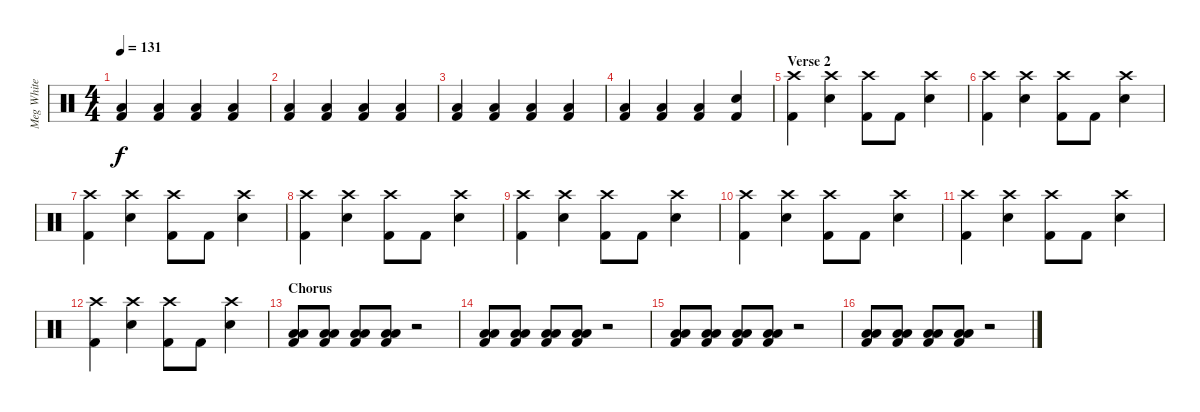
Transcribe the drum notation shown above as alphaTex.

\track ("Meg White - Drums" "Meg White ") {instrument percussion}
\staff {score}
\articulation defaults
\ts (4 4)
\tempo 131
\clef neutral
\ks c
("Low Floor Tom (hit)" "Kick (hit) 2").4{dy f} ("Low Floor Tom (hit)" "Kick (hit) 2").4 ("Low Floor Tom (hit)" "Kick (hit) 2").4 ("Low Floor Tom (hit)" "Kick (hit) 2").4 |
("Low Floor Tom (hit)" "Kick (hit) 2").4 ("Low Floor Tom (hit)" "Kick (hit) 2").4 ("Low Floor Tom (hit)" "Kick (hit) 2").4 ("Low Floor Tom (hit)" "Kick (hit) 2").4 |
("Low Floor Tom (hit)" "Kick (hit) 2").4 ("Low Floor Tom (hit)" "Kick (hit) 2").4 ("Low Floor Tom (hit)" "Kick (hit) 2").4 ("Low Floor Tom (hit)" "Kick (hit) 2").4 |
("Low Floor Tom (hit)" "Kick (hit) 2").4 ("Low Floor Tom (hit)" "Kick (hit) 2").4 ("Low Floor Tom (hit)" "Kick (hit) 2").4 ("Electric Snare (hit)" "Kick (hit) 2").4 |
\section ("" "Verse 2")
("Crash high (hit)" "Kick (hit) 2").4 ("Crash high (hit)" "Electric Snare (hit)").4 ("Crash high (hit)" "Kick (hit) 2").8 "Kick (hit) 2".8 ("Crash high (hit)" "Electric Snare (hit)").4 |
("Crash high (hit)" "Kick (hit) 2").4 ("Crash high (hit)" "Electric Snare (hit)").4 ("Crash high (hit)" "Kick (hit) 2").8 "Kick (hit) 2".8 ("Crash high (hit)" "Electric Snare (hit)").4 |
("Crash high (hit)" "Kick (hit) 2").4 ("Crash high (hit)" "Electric Snare (hit)").4 ("Crash high (hit)" "Kick (hit) 2").8 "Kick (hit) 2".8 ("Crash high (hit)" "Electric Snare (hit)").4 |
("Crash high (hit)" "Kick (hit) 2").4 ("Crash high (hit)" "Electric Snare (hit)").4 ("Crash high (hit)" "Kick (hit) 2").8 "Kick (hit) 2".8 ("Crash high (hit)" "Electric Snare (hit)").4 |
("Crash high (hit)" "Kick (hit) 2").4 ("Crash high (hit)" "Electric Snare (hit)").4 ("Crash high (hit)" "Kick (hit) 2").8 "Kick (hit) 2".8 ("Crash high (hit)" "Electric Snare (hit)").4 |
("Crash high (hit)" "Kick (hit) 2").4 ("Crash high (hit)" "Electric Snare (hit)").4 ("Crash high (hit)" "Kick (hit) 2").8 "Kick (hit) 2".8 ("Crash high (hit)" "Electric Snare (hit)").4 |
("Crash high (hit)" "Kick (hit) 2").4 ("Crash high (hit)" "Electric Snare (hit)").4 ("Crash high (hit)" "Kick (hit) 2").8 "Kick (hit) 2".8 ("Crash high (hit)" "Electric Snare (hit)").4 |
("Crash high (hit)" "Kick (hit) 2").4 ("Crash high (hit)" "Electric Snare (hit)").4 ("Crash high (hit)" "Kick (hit) 2").8 "Kick (hit) 2".8 ("Crash high (hit)" "Electric Snare (hit)").4 |
\section ("" "Chorus")
("Low Floor Tom (hit)" "Low Floor Tom (hit)" "Kick (hit) 2").8 ("Low Floor Tom (hit)" "Low Floor Tom (hit)" "Kick (hit) 2").8 ("Low Floor Tom (hit)" "Low Floor Tom (hit)" "Kick (hit) 2").8 ("Low Floor Tom (hit)" "Low Floor Tom (hit)" "Kick (hit) 2").8 r.2 |
("Low Floor Tom (hit)" "Low Floor Tom (hit)" "Kick (hit) 2").8 ("Low Floor Tom (hit)" "Low Floor Tom (hit)" "Kick (hit) 2").8 ("Low Floor Tom (hit)" "Low Floor Tom (hit)" "Kick (hit) 2").8 ("Low Floor Tom (hit)" "Low Floor Tom (hit)" "Kick (hit) 2").8 r.2 |
("Low Floor Tom (hit)" "Low Floor Tom (hit)" "Kick (hit) 2").8 ("Low Floor Tom (hit)" "Low Floor Tom (hit)" "Kick (hit) 2").8 ("Low Floor Tom (hit)" "Low Floor Tom (hit)" "Kick (hit) 2").8 ("Low Floor Tom (hit)" "Low Floor Tom (hit)" "Kick (hit) 2").8 r.2 |
("Low Floor Tom (hit)" "Low Floor Tom (hit)" "Kick (hit) 2").8 ("Low Floor Tom (hit)" "Low Floor Tom (hit)" "Kick (hit) 2").8 ("Low Floor Tom (hit)" "Low Floor Tom (hit)" "Kick (hit) 2").8 ("Low Floor Tom (hit)" "Low Floor Tom (hit)" "Kick (hit) 2").8 r.2
